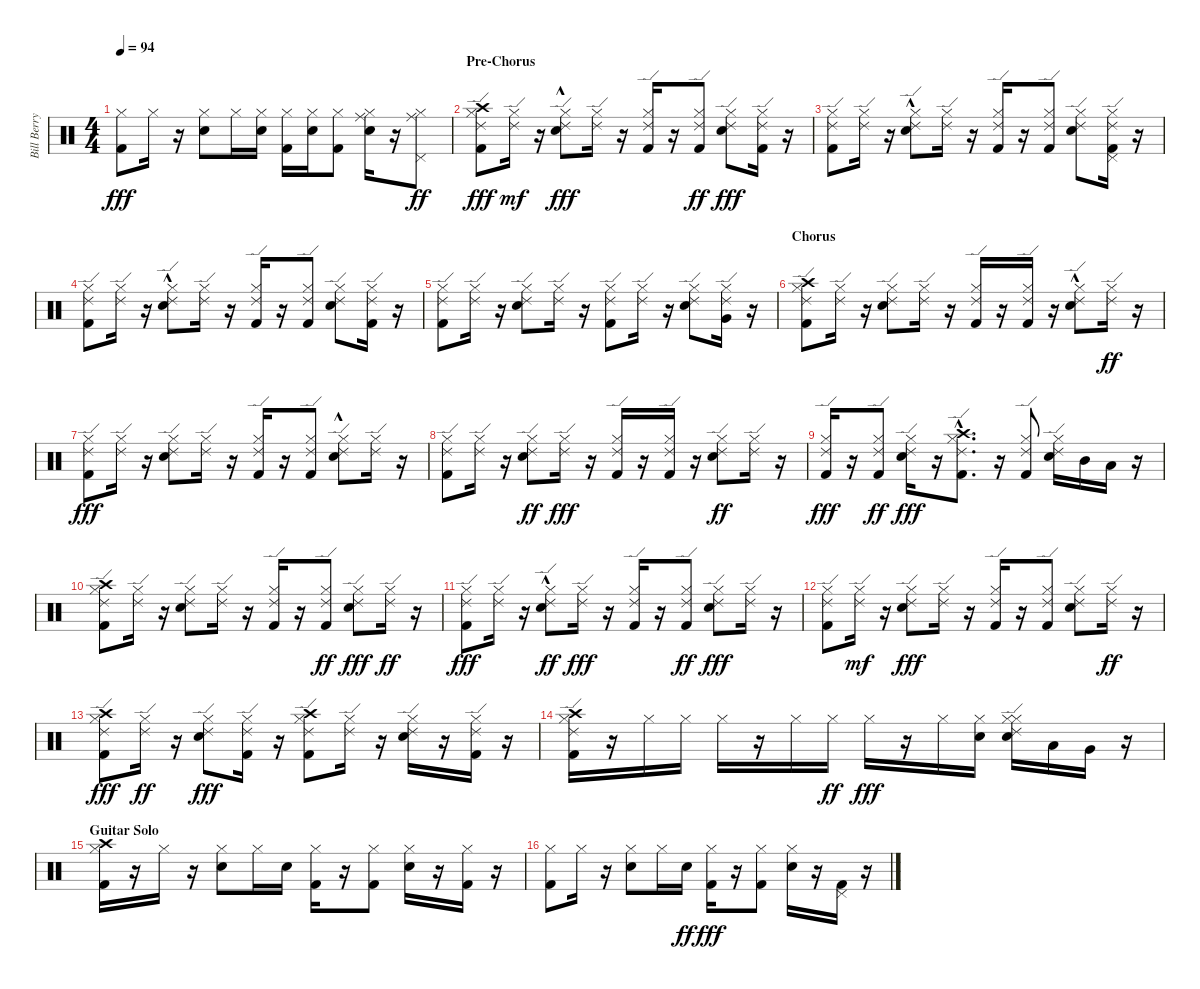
\track ("Bill Berry (Drums)" "Bill Berry") {instrument percussion}
\staff {score}
\articulation defaults
\ts (4 4)
\tempo 94
\clef neutral
\ks c
("Kick (hit) 2" "Hi-Hat (closed)").8{dy fff} "Hi-Hat (closed)".16 r.16 ("Electric Snare (hit)" "Hi-Hat (closed)").8 "Hi-Hat (closed)".16 ("Electric Snare (hit)" "Hi-Hat (closed)").16 ("Hi-Hat (closed)" "Kick (hit) 2").16 ("Electric Snare (hit)" "Hi-Hat (closed)").16 ("Hi-Hat (closed)" "Kick (hit) 2").8 ("Electric Snare (hit)" "Hi-Hat (closed)" "Ride (middle)").16 r.16 ("Pedal Hi-Hat (hit)" "Hi-Hat (closed)" "Ride (middle)").8{dy ff} |
\section ("" "Pre-Chorus")
("Kick (hit) 2" "Crash high (hit)" "Hi-Hat (closed)" "Ride (edge) 2").8{dy fff} ("Hi-Hat (closed)" "Ride (edge) 2").16{dy mf} r.16 ("Ride (edge) 2" "Hi-Hat (closed)" "Electric Snare (hit)"{hac}).8{dy fff} ("Ride (edge) 2" "Hi-Hat (closed)").16 r.16 ("Ride (edge) 2" "Kick (hit) 2" "Hi-Hat (closed)").16 r.16 ("Ride (edge) 2" "Kick (hit) 2" "Hi-Hat (closed)").8{dy ff} ("Ride (edge) 2" "Electric Snare (hit)" "Hi-Hat (closed)").8{dy fff} ("Ride (edge) 2" "Kick (hit) 2" "Hi-Hat (closed)").16 r.16 |
("Kick (hit) 2" "Ride (edge) 2" "Hi-Hat (closed)").8 ("Hi-Hat (closed)" "Ride (edge) 2").16 r.16 ("Electric Snare (hit)"{hac} "Ride (edge) 2" "Hi-Hat (closed)").8 ("Ride (edge) 2" "Hi-Hat (closed)").16 r.16 ("Ride (edge) 2" "Hi-Hat (closed)" "Kick (hit) 2").16 r.16 ("Ride (edge) 2" "Hi-Hat (closed)" "Kick (hit) 2").8 ("Ride (edge) 2" "Electric Snare (hit)" "Hi-Hat (closed)").8 ("Hi-Hat (closed)" "Pedal Hi-Hat (hit)" "Kick (hit) 2" "Ride (edge) 2").16 r.16 |
("Kick (hit) 2" "Ride (edge) 2" "Hi-Hat (closed)").8 ("Ride (edge) 2" "Hi-Hat (closed)").16 r.16 ("Electric Snare (hit)"{hac} "Ride (edge) 2" "Hi-Hat (closed)").8 ("Ride (edge) 2" "Hi-Hat (closed)").16 r.16 ("Kick (hit) 2" "Ride (edge) 2" "Hi-Hat (closed)").16 r.16 ("Ride (edge) 2" "Kick (hit) 2" "Hi-Hat (closed)").8 ("Ride (edge) 2" "Electric Snare (hit)" "Hi-Hat (closed)").8 ("Ride (edge) 2" "Hi-Hat (closed)" "Kick (hit) 2").16 r.16 |
("Ride (edge) 2" "Kick (hit) 2" "Hi-Hat (closed)").8 ("Ride (edge) 2" "Hi-Hat (closed)").16 r.16 ("Ride (edge) 2" "Electric Snare (hit)" "Hi-Hat (closed)").8 ("Ride (edge) 2" "Hi-Hat (closed)").16 r.16 ("Ride (edge) 2" "Kick (hit) 2" "Hi-Hat (closed)").8 ("Ride (edge) 2" "Hi-Hat (closed)").16 r.16 ("Electric Snare (hit)" "Ride (edge) 2" "Hi-Hat (closed)").8 ("Very Low Tom (hit)" "Hi-Hat (closed)" "Ride (edge) 2").16 r.16 |
\section ("" "Chorus")
("Kick (hit) 2" "Crash high (hit)" "Hi-Hat (closed)" "Ride (edge) 2").8 ("Hi-Hat (closed)" "Ride (edge) 2").16 r.16 ("Electric Snare (hit)" "Ride (edge) 2" "Hi-Hat (closed)").8 ("Hi-Hat (closed)" "Ride (edge) 2").16 r.16 ("Kick (hit) 2" "Ride (edge) 2" "Hi-Hat (closed)").16 r.16 ("Kick (hit) 2" "Ride (edge) 2" "Hi-Hat (closed)").16 r.16 ("Electric Snare (hit)"{hac} "Ride (edge) 2" "Hi-Hat (closed)").8 ("Hi-Hat (closed)" "Ride (edge) 2").16{dy ff} r.16 |
("Kick (hit) 2" "Hi-Hat (closed)" "Ride (edge) 2").8{dy fff} ("Ride (edge) 2" "Hi-Hat (closed)").16 r.16 ("Electric Snare (hit)" "Ride (edge) 2" "Hi-Hat (closed)").8 ("Hi-Hat (closed)" "Ride (edge) 2").16 r.16 ("Kick (hit) 2" "Ride (edge) 2" "Hi-Hat (closed)").16 r.16 ("Ride (edge) 2" "Kick (hit) 2" "Hi-Hat (closed)").8 ("Hi-Hat (closed)" "Ride (edge) 2" "Electric Snare (hit)"{hac}).8 ("Hi-Hat (closed)" "Ride (edge) 2").16 r.16 |
("Ride (edge) 2" "Kick (hit) 2" "Hi-Hat (closed)").8 ("Hi-Hat (closed)" "Ride (edge) 2").16 r.16 ("Ride (edge) 2" "Electric Snare (hit)" "Hi-Hat (closed)").8{dy ff} ("Ride (edge) 2" "Hi-Hat (closed)").16{dy fff} r.16 ("Kick (hit) 2" "Ride (edge) 2" "Hi-Hat (closed)").16 r.16 ("Kick (hit) 2" "Ride (edge) 2" "Hi-Hat (closed)").16 r.16 ("Electric Snare (hit)" "Ride (edge) 2" "Hi-Hat (closed)").8{dy ff} ("Ride (edge) 2" "Hi-Hat (closed)").16 r.16 |
("Kick (hit) 2" "Ride (edge) 2" "Hi-Hat (closed)").16{dy fff} r.16 ("Kick (hit) 2" "Hi-Hat (closed)" "Ride (edge) 2").8{dy ff} ("Electric Snare (hit)" "Ride (edge) 2" "Hi-Hat (closed)").16{dy fff} r.16 ("Kick (hit) 2"{hac} "Ride (edge) 2" "Hi-Hat (closed)" "Crash high (hit)").8{d} r.16 ("Kick (hit) 2" "Ride (edge) 2" "Hi-Hat (closed)").8 ("Electric Snare (hit)" "Hi-Hat (closed)" "Ride (edge) 2").16 "Mid Tom (hit)".16 "Low Tom (hit)".16 r.16 |
("Kick (hit) 2" "Hi-Hat (closed)" "Ride (edge) 2" "Crash high (hit)").8 ("Ride (edge) 2" "Hi-Hat (closed)").16 r.16 ("Electric Snare (hit)" "Ride (edge) 2" "Hi-Hat (closed)").8 ("Ride (edge) 2" "Hi-Hat (closed)").16 r.16 ("Kick (hit) 2" "Ride (edge) 2" "Hi-Hat (closed)").16 r.16 ("Kick (hit) 2" "Hi-Hat (closed)" "Ride (edge) 2").8{dy ff} ("Electric Snare (hit)" "Ride (edge) 2" "Hi-Hat (closed)").8{dy fff} ("Hi-Hat (closed)" "Ride (edge) 2").16{dy ff} r.16 |
("Kick (hit) 2" "Ride (edge) 2" "Hi-Hat (closed)").8{dy fff} ("Ride (edge) 2" "Hi-Hat (closed)").16 r.16 ("Electric Snare (hit)"{hac} "Hi-Hat (closed)" "Ride (edge) 2").8{dy ff} ("Ride (edge) 2" "Hi-Hat (closed)").16{dy fff} r.16 ("Kick (hit) 2" "Ride (edge) 2" "Hi-Hat (closed)").16 r.16 ("Kick (hit) 2" "Hi-Hat (closed)" "Ride (edge) 2").8{dy ff} ("Electric Snare (hit)" "Ride (edge) 2" "Hi-Hat (closed)").8{dy fff} ("Ride (edge) 2" "Hi-Hat (closed)").16 r.16 |
("Kick (hit) 2" "Ride (edge) 2" "Hi-Hat (closed)").8 ("Hi-Hat (closed)" "Ride (edge) 2").16{dy mf} r.16 ("Electric Snare (hit)" "Ride (edge) 2" "Hi-Hat (closed)").8{dy fff} ("Ride (edge) 2" "Hi-Hat (closed)").16 r.16 ("Kick (hit) 2" "Ride (edge) 2" "Hi-Hat (closed)").16 r.16 ("Ride (edge) 2" "Kick (hit) 2" "Hi-Hat (closed)").8 ("Hi-Hat (closed)" "Ride (edge) 2" "Electric Snare (hit)").8 ("Hi-Hat (closed)" "Ride (edge) 2").16{dy ff} r.16 |
("Ride (edge) 2" "Kick (hit) 2" "Hi-Hat (closed)" "Crash high (hit)").8{dy fff} ("Ride (edge) 2" "Hi-Hat (closed)").16{dy ff} r.16 ("Ride (edge) 2" "Electric Snare (hit)" "Hi-Hat (closed)").8{dy fff} ("Kick (hit) 2" "Hi-Hat (closed)" "Ride (edge) 2").16 r.16 ("Kick (hit) 2" "Hi-Hat (closed)" "Ride (edge) 2" "Crash high (hit)").8 ("Hi-Hat (closed)" "Ride (edge) 2").16 r.16 ("Electric Snare (hit)" "Ride (edge) 2" "Hi-Hat (closed)").16 r.16 ("Kick (hit) 2" "Hi-Hat (closed)" "Ride (edge) 2").16 r.16 |
("Crash high (hit)" "Kick (hit) 2" "Ride (edge) 2" "Hi-Hat (closed)").16 r.16 "Hi-Hat (closed)".16 "Hi-Hat (closed)".16 "Hi-Hat (closed)".16 r.16 "Hi-Hat (closed)".16 "Hi-Hat (closed)".16{dy ff} "Hi-Hat (closed)".16{dy fff} r.16 "Hi-Hat (closed)".16 ("Electric Snare (hit)" "Hi-Hat (closed)").16 ("Hi-Hat (closed)" "Ride (edge) 2" "Hi-Hat (closed)" "Electric Snare (hit)").16 "Low Tom (hit)".16 "Very Low Tom (hit)".16 r.16 |
\section ("" "Guitar Solo")
("Kick (hit) 2" "Crash high (hit)" "Hi-Hat (closed)").16 r.16 "Hi-Hat (closed)".16 r.16 ("Hi-Hat (closed)" "Electric Snare (hit)").8 "Hi-Hat (closed)".16 "Electric Snare (hit)".16 ("Kick (hit) 2" "Hi-Hat (closed)").16 r.16 ("Kick (hit) 2" "Hi-Hat (closed)").8 ("Hi-Hat (closed)" "Electric Snare (hit)").16 r.16 ("Hi-Hat (closed)" "Kick (hit) 2").16 r.16 |
("Hi-Hat (closed)" "Kick (hit) 2").8 "Hi-Hat (closed)".16 r.16 ("Electric Snare (hit)" "Hi-Hat (closed)").8 "Hi-Hat (closed)".16 "Electric Snare (hit)".16{dy ff} ("Kick (hit) 2" "Hi-Hat (closed)").16{dy fff} r.16 ("Hi-Hat (closed)" "Kick (hit) 2").8 ("Hi-Hat (closed)" "Electric Snare (hit)").16 r.16 ("Pedal Hi-Hat (hit)" "Kick (hit) 2").16 r.16
